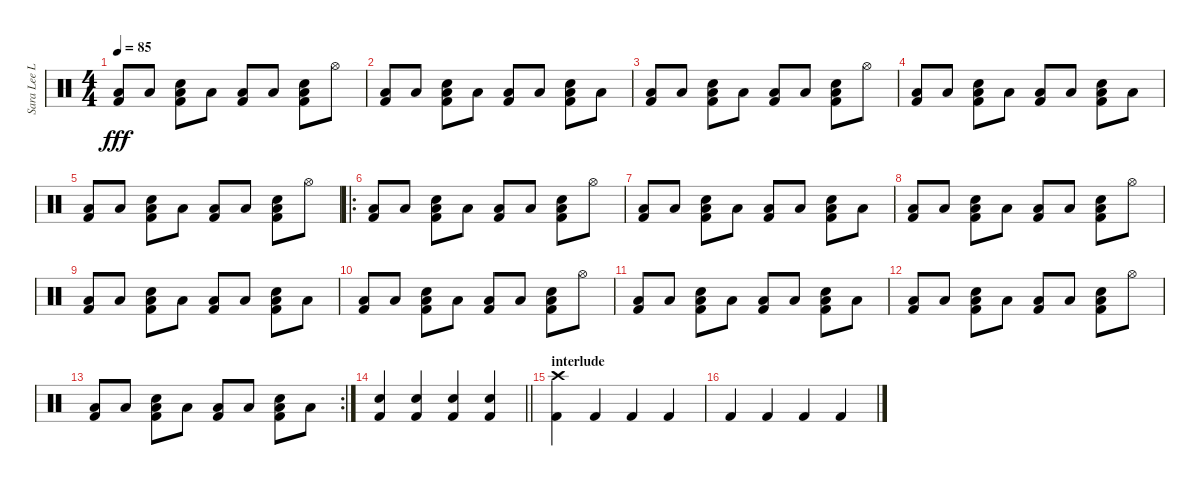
\track ("Sara Lee Lucas" "Sara Lee L") {instrument percussion}
\staff {score}
\articulation defaults
\ts (4 4)
\tempo 85
\clef neutral
\ks c
("Low Tom (hit)" "Kick (hit) 2").8{dy fff} "Low Tom (hit)".8 ("Low Tom (hit)" "Snare (hit) 2" "Kick (hit) 2").8 "Low Tom (hit)".8 ("Low Tom (hit)" "Kick (hit) 2").8 "Low Tom (hit)".8 ("Low Tom (hit)" "Snare (hit) 2" "Kick (hit) 2").8 "Hi-Hat (open)".8 |
("Low Tom (hit)" "Kick (hit) 2").8 "Low Tom (hit)".8 ("Low Tom (hit)" "Snare (hit) 2" "Kick (hit) 2").8 "Low Tom (hit)".8 ("Low Tom (hit)" "Kick (hit) 2").8 "Low Tom (hit)".8 ("Low Tom (hit)" "Snare (hit) 2" "Kick (hit) 2").8 "Low Tom (hit)".8 |
("Low Tom (hit)" "Kick (hit) 2").8 "Low Tom (hit)".8 ("Low Tom (hit)" "Snare (hit) 2" "Kick (hit) 2").8 "Low Tom (hit)".8 ("Low Tom (hit)" "Kick (hit) 2").8 "Low Tom (hit)".8 ("Low Tom (hit)" "Snare (hit) 2" "Kick (hit) 2").8 "Hi-Hat (open)".8 |
("Low Tom (hit)" "Kick (hit) 2").8 "Low Tom (hit)".8 ("Low Tom (hit)" "Snare (hit) 2" "Kick (hit) 2").8 "Low Tom (hit)".8 ("Low Tom (hit)" "Kick (hit) 2").8 "Low Tom (hit)".8 ("Low Tom (hit)" "Snare (hit) 2" "Kick (hit) 2").8 "Low Tom (hit)".8 |
("Low Tom (hit)" "Kick (hit) 2").8 "Low Tom (hit)".8 ("Low Tom (hit)" "Snare (hit) 2" "Kick (hit) 2").8 "Low Tom (hit)".8 ("Low Tom (hit)" "Kick (hit) 2").8 "Low Tom (hit)".8 ("Low Tom (hit)" "Snare (hit) 2" "Kick (hit) 2").8 "Hi-Hat (open)".8 |
\ro
("Low Tom (hit)" "Kick (hit) 2").8 "Low Tom (hit)".8 ("Low Tom (hit)" "Snare (hit) 2" "Kick (hit) 2").8 "Low Tom (hit)".8 ("Low Tom (hit)" "Kick (hit) 2").8 "Low Tom (hit)".8 ("Low Tom (hit)" "Snare (hit) 2" "Kick (hit) 2").8 "Hi-Hat (open)".8 |
("Low Tom (hit)" "Kick (hit) 2").8 "Low Tom (hit)".8 ("Low Tom (hit)" "Snare (hit) 2" "Kick (hit) 2").8 "Low Tom (hit)".8 ("Low Tom (hit)" "Kick (hit) 2").8 "Low Tom (hit)".8 ("Low Tom (hit)" "Snare (hit) 2" "Kick (hit) 2").8 "Low Tom (hit)".8 |
("Low Tom (hit)" "Kick (hit) 2").8 "Low Tom (hit)".8 ("Low Tom (hit)" "Snare (hit) 2" "Kick (hit) 2").8 "Low Tom (hit)".8 ("Low Tom (hit)" "Kick (hit) 2").8 "Low Tom (hit)".8 ("Low Tom (hit)" "Snare (hit) 2" "Kick (hit) 2").8 "Hi-Hat (open)".8 |
("Low Tom (hit)" "Kick (hit) 2").8 "Low Tom (hit)".8 ("Low Tom (hit)" "Snare (hit) 2" "Kick (hit) 2").8 "Low Tom (hit)".8 ("Low Tom (hit)" "Kick (hit) 2").8 "Low Tom (hit)".8 ("Low Tom (hit)" "Snare (hit) 2" "Kick (hit) 2").8 "Low Tom (hit)".8 |
("Low Tom (hit)" "Kick (hit) 2").8 "Low Tom (hit)".8 ("Low Tom (hit)" "Snare (hit) 2" "Kick (hit) 2").8 "Low Tom (hit)".8 ("Low Tom (hit)" "Kick (hit) 2").8 "Low Tom (hit)".8 ("Low Tom (hit)" "Snare (hit) 2" "Kick (hit) 2").8 "Hi-Hat (open)".8 |
("Low Tom (hit)" "Kick (hit) 2").8 "Low Tom (hit)".8 ("Low Tom (hit)" "Snare (hit) 2" "Kick (hit) 2").8 "Low Tom (hit)".8 ("Low Tom (hit)" "Kick (hit) 2").8 "Low Tom (hit)".8 ("Low Tom (hit)" "Snare (hit) 2" "Kick (hit) 2").8 "Low Tom (hit)".8 |
("Low Tom (hit)" "Kick (hit) 2").8 "Low Tom (hit)".8 ("Low Tom (hit)" "Snare (hit) 2" "Kick (hit) 2").8 "Low Tom (hit)".8 ("Low Tom (hit)" "Kick (hit) 2").8 "Low Tom (hit)".8 ("Low Tom (hit)" "Snare (hit) 2" "Kick (hit) 2").8 "Hi-Hat (open)".8 |
\rc 2
("Low Tom (hit)" "Kick (hit) 2").8 "Low Tom (hit)".8 ("Low Tom (hit)" "Snare (hit) 2" "Kick (hit) 2").8 "Low Tom (hit)".8 ("Low Tom (hit)" "Kick (hit) 2").8 "Low Tom (hit)".8 ("Low Tom (hit)" "Snare (hit) 2" "Kick (hit) 2").8 "Low Tom (hit)".8 |
\barLineRight lightlight
("Snare (hit) 2" "Kick (hit) 2").4 ("Snare (hit) 2" "Kick (hit) 2").4 ("Snare (hit) 2" "Kick (hit) 2").4 ("Snare (hit) 2" "Kick (hit) 2").4 |
\section ("" "interlude")
("Crash high (hit)" "Kick (hit) 2").4 "Kick (hit) 2".4 "Kick (hit) 2".4 "Kick (hit) 2".4 |
"Kick (hit) 2".4 "Kick (hit) 2".4 "Kick (hit) 2".4 "Kick (hit) 2".4
